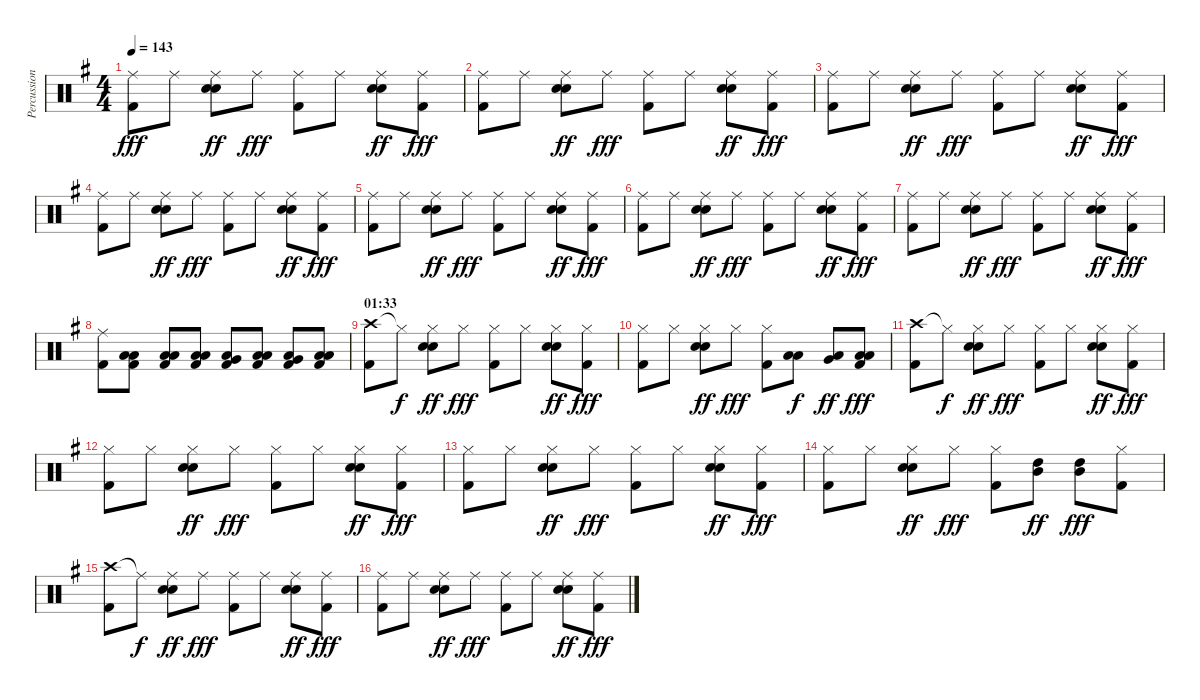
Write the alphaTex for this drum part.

\track ("Percussion" "Percussion") {instrument percussion}
\staff {score}
\articulation defaults
\ts (4 4)
\tempo 143
\clef neutral
\ks g
("Ride (middle)" "Kick (hit) 2").8{dy fff} "Ride (middle)".8 ("Ride (middle)" "Snare (hit) 2" "Electric Snare (hit)").8{dy ff} "Ride (middle)".8{dy fff} ("Ride (middle)" "Kick (hit) 2").8 "Ride (middle)".8 ("Ride (middle)" "Snare (hit) 2" "Electric Snare (hit)").8{dy ff} ("Ride (middle)" "Kick (hit) 2").8{dy fff} |
("Ride (middle)" "Kick (hit) 2").8 "Ride (middle)".8 ("Ride (middle)" "Snare (hit) 2" "Electric Snare (hit)").8{dy ff} "Ride (middle)".8{dy fff} ("Ride (middle)" "Kick (hit) 2").8 "Ride (middle)".8 ("Ride (middle)" "Snare (hit) 2" "Electric Snare (hit)").8{dy ff} ("Ride (middle)" "Kick (hit) 2").8{dy fff} |
("Ride (middle)" "Kick (hit) 2").8 "Ride (middle)".8 ("Ride (middle)" "Snare (hit) 2" "Electric Snare (hit)").8{dy ff} "Ride (middle)".8{dy fff} ("Ride (middle)" "Kick (hit) 2").8 "Ride (middle)".8 ("Ride (middle)" "Snare (hit) 2" "Electric Snare (hit)").8{dy ff} ("Ride (middle)" "Kick (hit) 2").8{dy fff} |
("Ride (middle)" "Kick (hit) 2").8 "Ride (middle)".8 ("Ride (middle)" "Snare (hit) 2" "Electric Snare (hit)").8{dy ff} "Ride (middle)".8{dy fff} ("Ride (middle)" "Kick (hit) 2").8 "Ride (middle)".8 ("Ride (middle)" "Snare (hit) 2" "Electric Snare (hit)").8{dy ff} ("Ride (middle)" "Kick (hit) 2").8{dy fff} |
("Ride (middle)" "Kick (hit) 2").8 "Ride (middle)".8 ("Ride (middle)" "Snare (hit) 2" "Electric Snare (hit)").8{dy ff} "Ride (middle)".8{dy fff} ("Ride (middle)" "Kick (hit) 2").8 "Ride (middle)".8 ("Ride (middle)" "Snare (hit) 2" "Electric Snare (hit)").8{dy ff} ("Ride (middle)" "Kick (hit) 2").8{dy fff} |
("Ride (middle)" "Kick (hit) 2").8 "Ride (middle)".8 ("Ride (middle)" "Snare (hit) 2" "Electric Snare (hit)").8{dy ff} "Ride (middle)".8{dy fff} ("Ride (middle)" "Kick (hit) 2").8 "Ride (middle)".8 ("Ride (middle)" "Snare (hit) 2" "Electric Snare (hit)").8{dy ff} ("Ride (middle)" "Kick (hit) 2").8{dy fff} |
("Ride (middle)" "Kick (hit) 2").8 "Ride (middle)".8 ("Ride (middle)" "Snare (hit) 2" "Electric Snare (hit)").8{dy ff} "Ride (middle)".8{dy fff} ("Ride (middle)" "Kick (hit) 2").8 "Ride (middle)".8 ("Ride (middle)" "Snare (hit) 2" "Electric Snare (hit)").8{dy ff} ("Ride (middle)" "Kick (hit) 2").8{dy fff} |
("Ride (middle)" "Kick (hit) 2").8 ("Low Tom (hit)" "Low Floor Tom (hit)" "Kick (hit) 2").8 ("Low Tom (hit)" "Low Floor Tom (hit)" "Kick (hit) 2").8 ("Low Tom (hit)" "Low Floor Tom (hit)" "Kick (hit) 2").8 ("Low Tom (hit)" "Very Low Tom (hit)" "Kick (hit) 2").8 ("Low Tom (hit)" "Low Floor Tom (hit)" "Kick (hit) 2").8 ("Low Tom (hit)" "Very Low Tom (hit)" "Kick (hit) 2").8 ("Low Tom (hit)" "Low Floor Tom (hit)" "Kick (hit) 2").8 |
\section ("" "01:33")
("Crash high (hit)" "Kick (hit) 2").8 "Hi-Hat (closed)"{t}.8{dy f} ("Hi-Hat (closed)" "Snare (hit) 2" "Electric Snare (hit)").8{dy ff} "Hi-Hat (closed)".8{dy fff} ("Hi-Hat (closed)" "Kick (hit) 2").8 "Hi-Hat (closed)".8 ("Hi-Hat (closed)" "Snare (hit) 2" "Electric Snare (hit)").8{dy ff} ("Hi-Hat (closed)" "Kick (hit) 2").8{dy fff} |
("Hi-Hat (closed)" "Kick (hit) 2").8 "Hi-Hat (closed)".8 ("Hi-Hat (closed)" "Snare (hit) 2" "Electric Snare (hit)").8{dy ff} "Hi-Hat (closed)".8{dy fff} ("Hi-Hat (closed)" "Kick (hit) 2").8 ("Low Tom (hit)" "Low Floor Tom (hit)").8{dy f} ("Low Tom (hit)" "Very Low Tom (hit)").8{dy ff} ("Low Tom (hit)" "Low Floor Tom (hit)" "Kick (hit) 2").8{dy fff} |
("Crash high (hit)" "Kick (hit) 2").8 "Hi-Hat (closed)"{t}.8{dy f} ("Hi-Hat (closed)" "Snare (hit) 2" "Electric Snare (hit)").8{dy ff} "Hi-Hat (closed)".8{dy fff} ("Hi-Hat (closed)" "Kick (hit) 2").8 "Hi-Hat (closed)".8 ("Hi-Hat (closed)" "Snare (hit) 2" "Electric Snare (hit)").8{dy ff} ("Hi-Hat (closed)" "Kick (hit) 2").8{dy fff} |
("Hi-Hat (closed)" "Kick (hit) 2").8 "Hi-Hat (closed)".8 ("Hi-Hat (closed)" "Snare (hit) 2" "Electric Snare (hit)").8{dy ff} "Hi-Hat (closed)".8{dy fff} ("Hi-Hat (closed)" "Kick (hit) 2").8 "Hi-Hat (closed)".8 ("Hi-Hat (closed)" "Snare (hit) 2" "Electric Snare (hit)").8{dy ff} ("Hi-Hat (closed)" "Kick (hit) 2").8{dy fff} |
("Hi-Hat (closed)" "Kick (hit) 2").8 "Hi-Hat (closed)".8 ("Hi-Hat (closed)" "Snare (hit) 2" "Electric Snare (hit)").8{dy ff} "Hi-Hat (closed)".8{dy fff} ("Hi-Hat (closed)" "Kick (hit) 2").8 "Hi-Hat (closed)".8 ("Hi-Hat (closed)" "Snare (hit) 2" "Electric Snare (hit)").8{dy ff} ("Hi-Hat (closed)" "Kick (hit) 2").8{dy fff} |
("Hi-Hat (closed)" "Kick (hit) 2").8 "Hi-Hat (closed)".8 ("Hi-Hat (closed)" "Snare (hit) 2" "Electric Snare (hit)").8{dy ff} "Hi-Hat (closed)".8{dy fff} ("Hi-Hat (closed)" "Kick (hit) 2").8 ("High Tom (hit)" "Mid Tom (hit)").8{dy ff} ("High Tom (hit)" "Mid Tom (hit)").8{dy fff} ("Hi-Hat (closed)" "Kick (hit) 2").8 |
("Crash high (hit)" "Kick (hit) 2").8 "Ride (middle)"{t}.8{dy f} ("Ride (middle)" "Snare (hit) 2" "Electric Snare (hit)").8{dy ff} "Ride (middle)".8{dy fff} ("Ride (middle)" "Kick (hit) 2").8 "Ride (middle)".8 ("Ride (middle)" "Snare (hit) 2" "Electric Snare (hit)").8{dy ff} ("Ride (middle)" "Kick (hit) 2").8{dy fff} |
("Ride (middle)" "Kick (hit) 2").8 "Ride (middle)".8 ("Ride (middle)" "Snare (hit) 2" "Electric Snare (hit)").8{dy ff} "Ride (middle)".8{dy fff} ("Ride (middle)" "Kick (hit) 2").8 "Ride (middle)".8 ("Ride (middle)" "Snare (hit) 2" "Electric Snare (hit)").8{dy ff} ("Ride (middle)" "Kick (hit) 2").8{dy fff}
